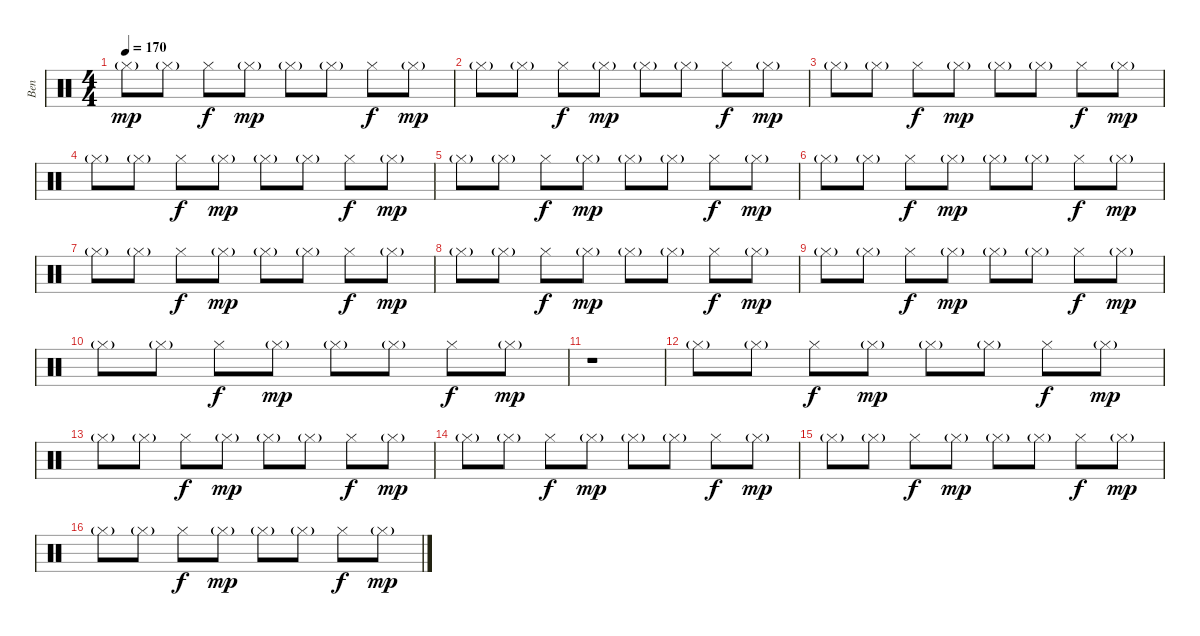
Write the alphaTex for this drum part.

\track ("Ben" "Ben") {instrument percussion}
\staff {score}
\articulation defaults
\ts (4 4)
\tempo 170
\clef neutral
\ks c "Hi-Hat (closed)"{g}.8{dy mp} "Hi-Hat (closed)"{g}.8 "Hi-Hat (closed)".8{dy f} "Hi-Hat (closed)"{g}.8{dy mp} "Hi-Hat (closed)"{g}.8 "Hi-Hat (closed)"{g}.8 "Hi-Hat (closed)".8{dy f} "Hi-Hat (closed)"{g}.8{dy mp}
|
"Hi-Hat (closed)"{g}.8 "Hi-Hat (closed)"{g}.8 "Hi-Hat (closed)".8{dy f} "Hi-Hat (closed)"{g}.8{dy mp} "Hi-Hat (closed)"{g}.8 "Hi-Hat (closed)"{g}.8 "Hi-Hat (closed)".8{dy f} "Hi-Hat (closed)"{g}.8{dy mp} |
"Hi-Hat (closed)"{g}.8 "Hi-Hat (closed)"{g}.8 "Hi-Hat (closed)".8{dy f} "Hi-Hat (closed)"{g}.8{dy mp} "Hi-Hat (closed)"{g}.8 "Hi-Hat (closed)"{g}.8 "Hi-Hat (closed)".8{dy f} "Hi-Hat (closed)"{g}.8{dy mp} |
"Hi-Hat (closed)"{g}.8 "Hi-Hat (closed)"{g}.8 "Hi-Hat (closed)".8{dy f} "Hi-Hat (closed)"{g}.8{dy mp} "Hi-Hat (closed)"{g}.8 "Hi-Hat (closed)"{g}.8 "Hi-Hat (closed)".8{dy f} "Hi-Hat (closed)"{g}.8{dy mp} |
"Hi-Hat (closed)"{g}.8 "Hi-Hat (closed)"{g}.8 "Hi-Hat (closed)".8{dy f} "Hi-Hat (closed)"{g}.8{dy mp} "Hi-Hat (closed)"{g}.8 "Hi-Hat (closed)"{g}.8 "Hi-Hat (closed)".8{dy f} "Hi-Hat (closed)"{g}.8{dy mp} |
"Hi-Hat (closed)"{g}.8 "Hi-Hat (closed)"{g}.8 "Hi-Hat (closed)".8{dy f} "Hi-Hat (closed)"{g}.8{dy mp} "Hi-Hat (closed)"{g}.8 "Hi-Hat (closed)"{g}.8 "Hi-Hat (closed)".8{dy f} "Hi-Hat (closed)"{g}.8{dy mp} |
"Hi-Hat (closed)"{g}.8 "Hi-Hat (closed)"{g}.8 "Hi-Hat (closed)".8{dy f} "Hi-Hat (closed)"{g}.8{dy mp} "Hi-Hat (closed)"{g}.8 "Hi-Hat (closed)"{g}.8 "Hi-Hat (closed)".8{dy f} "Hi-Hat (closed)"{g}.8{dy mp} |
"Hi-Hat (closed)"{g}.8 "Hi-Hat (closed)"{g}.8 "Hi-Hat (closed)".8{dy f} "Hi-Hat (closed)"{g}.8{dy mp} "Hi-Hat (closed)"{g}.8 "Hi-Hat (closed)"{g}.8 "Hi-Hat (closed)".8{dy f} "Hi-Hat (closed)"{g}.8{dy mp} |
"Hi-Hat (closed)"{g}.8 "Hi-Hat (closed)"{g}.8 "Hi-Hat (closed)".8{dy f} "Hi-Hat (closed)"{g}.8{dy mp} "Hi-Hat (closed)"{g}.8 "Hi-Hat (closed)"{g}.8 "Hi-Hat (closed)".8{dy f} "Hi-Hat (closed)"{g}.8{dy mp} |
"Hi-Hat (closed)"{g}.8 "Hi-Hat (closed)"{g}.8 "Hi-Hat (closed)".8{dy f} "Hi-Hat (closed)"{g}.8{dy mp} "Hi-Hat (closed)"{g}.8 "Hi-Hat (closed)"{g}.8 "Hi-Hat (closed)".8{dy f} "Hi-Hat (closed)"{g}.8{dy mp} |
r.1 |
"Hi-Hat (closed)"{g}.8 "Hi-Hat (closed)"{g}.8 "Hi-Hat (closed)".8{dy f} "Hi-Hat (closed)"{g}.8{dy mp} "Hi-Hat (closed)"{g}.8 "Hi-Hat (closed)"{g}.8 "Hi-Hat (closed)".8{dy f} "Hi-Hat (closed)"{g}.8{dy mp} |
"Hi-Hat (closed)"{g}.8 "Hi-Hat (closed)"{g}.8 "Hi-Hat (closed)".8{dy f} "Hi-Hat (closed)"{g}.8{dy mp} "Hi-Hat (closed)"{g}.8 "Hi-Hat (closed)"{g}.8 "Hi-Hat (closed)".8{dy f} "Hi-Hat (closed)"{g}.8{dy mp} |
"Hi-Hat (closed)"{g}.8 "Hi-Hat (closed)"{g}.8 "Hi-Hat (closed)".8{dy f} "Hi-Hat (closed)"{g}.8{dy mp} "Hi-Hat (closed)"{g}.8 "Hi-Hat (closed)"{g}.8 "Hi-Hat (closed)".8{dy f} "Hi-Hat (closed)"{g}.8{dy mp} |
"Hi-Hat (closed)"{g}.8 "Hi-Hat (closed)"{g}.8 "Hi-Hat (closed)".8{dy f} "Hi-Hat (closed)"{g}.8{dy mp} "Hi-Hat (closed)"{g}.8 "Hi-Hat (closed)"{g}.8 "Hi-Hat (closed)".8{dy f} "Hi-Hat (closed)"{g}.8{dy mp} |
"Hi-Hat (closed)"{g}.8 "Hi-Hat (closed)"{g}.8 "Hi-Hat (closed)".8{dy f} "Hi-Hat (closed)"{g}.8{dy mp} "Hi-Hat (closed)"{g}.8 "Hi-Hat (closed)"{g}.8 "Hi-Hat (closed)".8{dy f} "Hi-Hat (closed)"{g}.8{dy mp}
